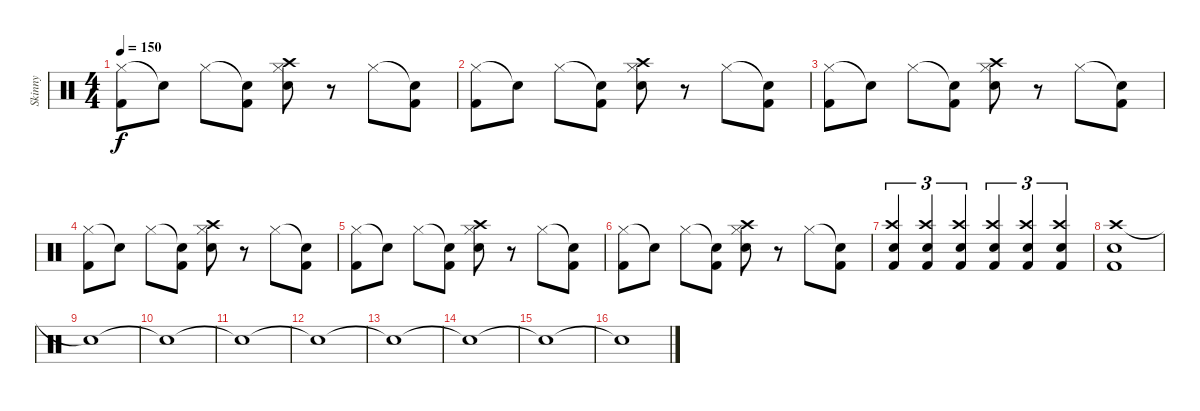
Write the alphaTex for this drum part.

\track ("Skinny" "Skinny") {instrument percussion}
\staff {score}
\articulation defaults
\ts (4 4)
\tempo 150
\clef neutral
\ks c
("Hi-Hat (closed)" "Kick (hit) 2").8{dy f} "Snare (hit)"{t}.8 "Hi-Hat (closed)".8 ("Snare (hit)"{t} "Kick (hit) 2").8 ("Crash high (hit)" "Hi-Hat (closed)" "Electric Snare (hit)").8 r.8 "Hi-Hat (closed)".8 ("Snare (hit)"{t} "Kick (hit) 2").8 |
("Hi-Hat (closed)" "Kick (hit) 2").8 "Snare (hit)"{t}.8 "Hi-Hat (closed)".8 ("Snare (hit)"{t} "Kick (hit) 2").8 ("Crash high (hit)" "Hi-Hat (closed)" "Electric Snare (hit)").8 r.8 "Hi-Hat (closed)".8 ("Snare (hit)"{t} "Kick (hit) 2").8 |
("Hi-Hat (closed)" "Kick (hit) 2").8 "Snare (hit)"{t}.8 "Hi-Hat (closed)".8 ("Snare (hit)"{t} "Kick (hit) 2").8 ("Crash high (hit)" "Hi-Hat (closed)" "Electric Snare (hit)").8 r.8 "Hi-Hat (closed)".8 ("Snare (hit)"{t} "Kick (hit) 2").8 |
("Hi-Hat (closed)" "Kick (hit) 2").8 "Snare (hit)"{t}.8 "Hi-Hat (closed)".8 ("Snare (hit)"{t} "Kick (hit) 2").8 ("Crash high (hit)" "Hi-Hat (closed)" "Electric Snare (hit)").8 r.8 "Hi-Hat (closed)".8 ("Snare (hit)"{t} "Kick (hit) 2").8 |
("Hi-Hat (closed)" "Kick (hit) 2").8 "Snare (hit)"{t}.8 "Hi-Hat (closed)".8 ("Snare (hit)"{t} "Kick (hit) 2").8 ("Crash high (hit)" "Hi-Hat (closed)" "Electric Snare (hit)").8 r.8 "Hi-Hat (closed)".8 ("Snare (hit)"{t} "Kick (hit) 2").8 |
("Hi-Hat (closed)" "Kick (hit) 2").8 "Snare (hit)"{t}.8 "Hi-Hat (closed)".8 ("Snare (hit)"{t} "Kick (hit) 2").8 ("Crash high (hit)" "Hi-Hat (closed)" "Electric Snare (hit)").8 r.8 "Hi-Hat (closed)".8 ("Snare (hit)"{t} "Kick (hit) 2").8 |
("Crash high (hit)" "Electric Snare (hit)" "Kick (hit) 2").4{tu (3 2)} ("Crash high (hit)" "Electric Snare (hit)" "Kick (hit) 2").4{tu (3 2)} ("Crash high (hit)" "Electric Snare (hit)" "Kick (hit) 2").4{tu (3 2)} ("Crash high (hit)" "Electric Snare (hit)" "Kick (hit) 2").4{tu (3 2)} ("Crash high (hit)" "Electric Snare (hit)" "Kick (hit) 2").4{tu (3 2)} ("Crash high (hit)" "Electric Snare (hit)" "Kick (hit) 2").4{tu (3 2)} |
("Crash high (hit)" "Electric Snare (hit)" "Kick (hit) 2").1 |
"Snare (hit)"{t}.1 |
"Snare (hit)"{t}.1 |
"Snare (hit)"{t}.1 |
"Snare (hit)"{t}.1 |
"Snare (hit)"{t}.1 |
"Snare (hit)"{t}.1 |
"Snare (hit)"{t}.1 |
"Snare (hit)"{t}.1
